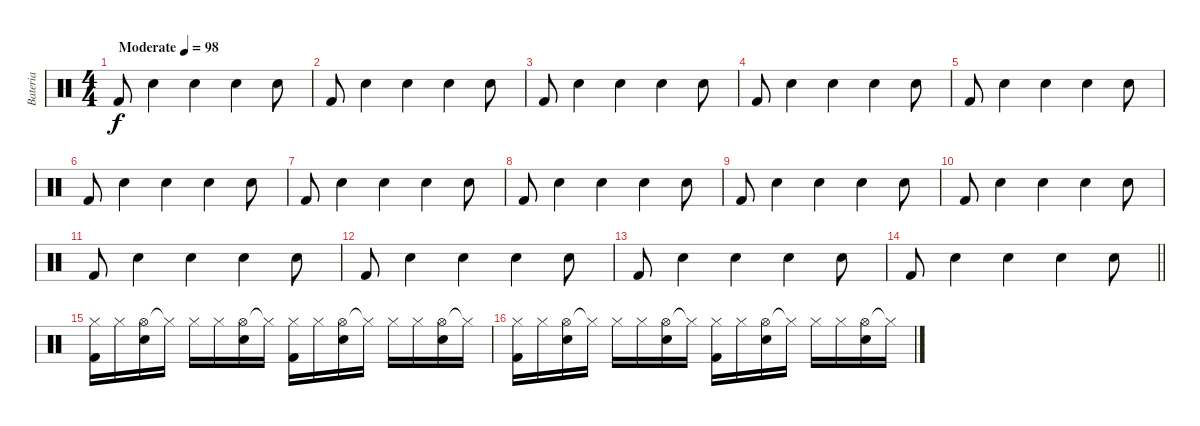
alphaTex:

\track ("Bateria" "Bateria") {instrument percussion}
\staff {score}
\articulation defaults
\ts (4 4)
\tempo (98 "Moderate")
\clef neutral
\ks c "Kick (hit) 2".8{dy f} "Snare (hit) 2".4 "Snare (hit) 2".4 "Snare (hit) 2".4 "Snare (hit) 2".8
|
"Kick (hit) 2".8 "Snare (hit) 2".4 "Snare (hit) 2".4 "Snare (hit) 2".4 "Snare (hit) 2".8 |
"Kick (hit) 2".8 "Snare (hit) 2".4 "Snare (hit) 2".4 "Snare (hit) 2".4 "Snare (hit) 2".8 |
"Kick (hit) 2".8 "Snare (hit) 2".4 "Snare (hit) 2".4 "Snare (hit) 2".4 "Snare (hit) 2".8 |
"Kick (hit) 2".8 "Snare (hit) 2".4 "Snare (hit) 2".4 "Snare (hit) 2".4 "Snare (hit) 2".8 |
"Kick (hit) 2".8 "Snare (hit) 2".4 "Snare (hit) 2".4 "Snare (hit) 2".4 "Snare (hit) 2".8 |
"Kick (hit) 2".8 "Snare (hit) 2".4 "Snare (hit) 2".4 "Snare (hit) 2".4 "Snare (hit) 2".8 |
"Kick (hit) 2".8 "Snare (hit) 2".4 "Snare (hit) 2".4 "Snare (hit) 2".4 "Snare (hit) 2".8 |
"Kick (hit) 2".8 "Snare (hit) 2".4 "Snare (hit) 2".4 "Snare (hit) 2".4 "Snare (hit) 2".8 |
"Kick (hit) 2".8 "Snare (hit) 2".4 "Snare (hit) 2".4 "Snare (hit) 2".4 "Snare (hit) 2".8 |
"Kick (hit) 2".8 "Snare (hit) 2".4 "Snare (hit) 2".4 "Snare (hit) 2".4 "Snare (hit) 2".8 |
"Kick (hit) 2".8 "Snare (hit) 2".4 "Snare (hit) 2".4 "Snare (hit) 2".4 "Snare (hit) 2".8 |
"Kick (hit) 2".8 "Snare (hit) 2".4 "Snare (hit) 2".4 "Snare (hit) 2".4 "Snare (hit) 2".8 |
\barLineRight lightlight "Kick (hit) 2".8 "Snare (hit) 2".4 "Snare (hit) 2".4 "Snare (hit) 2".4 "Snare (hit) 2".8
|
("Hi-Hat (closed)" "Kick (hit) 2").16 "Hi-Hat (closed)".16 ("Hi-Hat (open)" "Snare (hit) 2").16 "Hi-Hat (closed)"{t}.16 "Hi-Hat (closed)".16 "Hi-Hat (closed)".16 ("Hi-Hat (open)" "Snare (hit) 2").16 "Hi-Hat (closed)"{t}.16 ("Hi-Hat (closed)" "Kick (hit) 2").16 "Hi-Hat (closed)".16 ("Hi-Hat (open)" "Snare (hit) 2").16 "Hi-Hat (closed)"{t}.16 "Hi-Hat (closed)".16 "Hi-Hat (closed)".16 ("Hi-Hat (open)" "Snare (hit) 2").16 "Hi-Hat (closed)"{t}.16 |
("Hi-Hat (closed)" "Kick (hit) 2").16 "Hi-Hat (closed)".16 ("Hi-Hat (open)" "Snare (hit) 2").16 "Hi-Hat (closed)"{t}.16 "Hi-Hat (closed)".16 "Hi-Hat (closed)".16 ("Hi-Hat (open)" "Snare (hit) 2").16 "Hi-Hat (closed)"{t}.16 ("Hi-Hat (closed)" "Kick (hit) 2").16 "Hi-Hat (closed)".16 ("Hi-Hat (open)" "Snare (hit) 2").16 "Hi-Hat (closed)"{t}.16 "Hi-Hat (closed)".16 "Hi-Hat (closed)".16 ("Hi-Hat (open)" "Snare (hit) 2").16 "Hi-Hat (closed)"{t}.16
